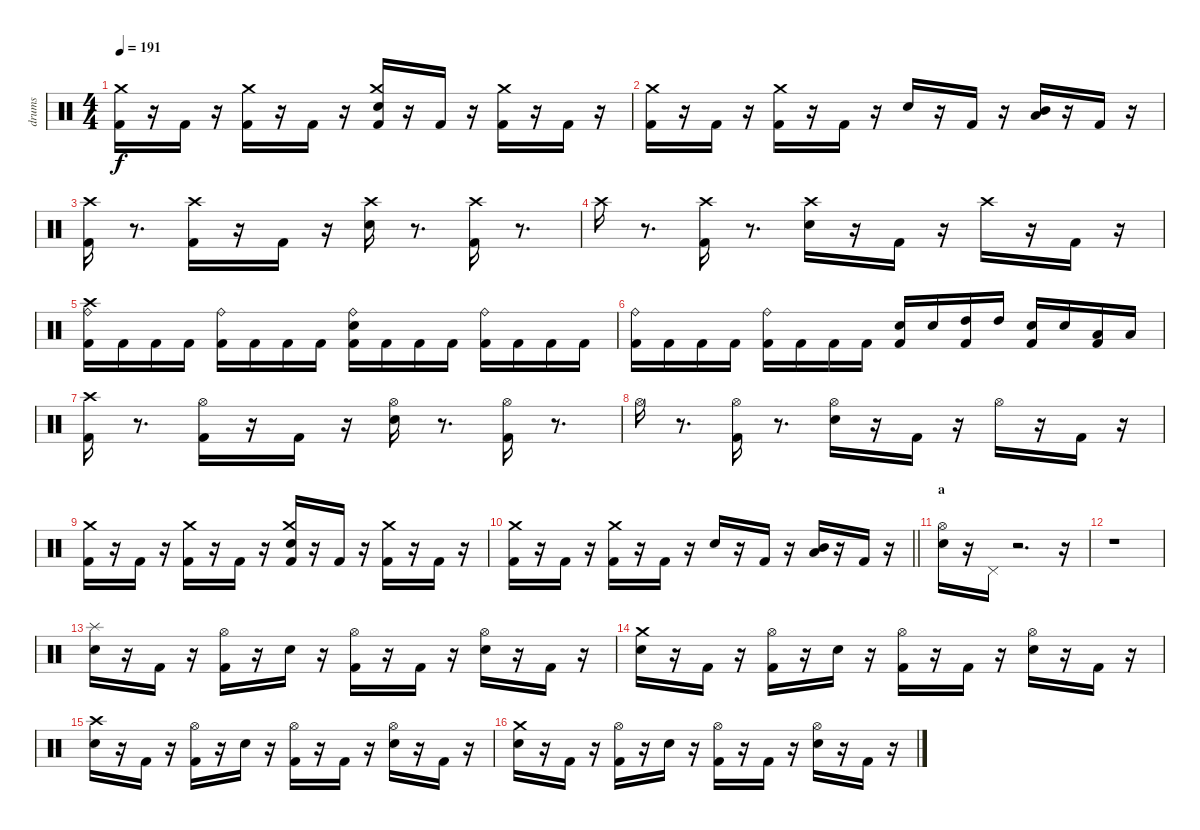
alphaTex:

\track ("drums" "drums") {instrument percussion}
\staff {score}
\articulation defaults
\ts (4 4)
\tempo 191
\clef neutral
\ks c
("Kick (hit) 2" "Crash medium (hit)").16{dy f} r.16 "Kick (hit) 2".16 r.16 ("Kick (hit) 2" "Crash medium (hit)").16 r.16 "Kick (hit) 2".16 r.16 ("Kick (hit) 2" "Snare (hit) 2" "Crash medium (hit)").16 r.16 "Kick (hit) 2".16 r.16 ("Kick (hit) 2" "Crash medium (hit)").16 r.16 "Kick (hit) 2".16 r.16 |
("Kick (hit) 2" "Crash medium (hit)").16 r.16 "Kick (hit) 2".16 r.16 ("Kick (hit) 2" "Crash medium (hit)").16 r.16 "Kick (hit) 2".16 r.16 "Snare (hit) 2".16 r.16 "Kick (hit) 2".16 r.16 ("Low Tom (hit)" "Mid Tom (hit)").16 r.16 "Kick (hit) 2".16 r.16 |
("Kick (hit) 2" "Crash high (hit)").16 r.8{d} ("Kick (hit) 2" "Crash high (hit)").16 r.16 "Kick (hit) 2".16 r.16 ("Snare (hit) 2" "Crash high (hit)").16 r.8{d} ("Kick (hit) 2" "Crash high (hit)").16 r.8{d} |
"Crash high (hit)".16 r.8{d} ("Kick (hit) 2" "Crash high (hit)").16 r.8{d} ("Snare (hit) 2" "Crash high (hit)").16 r.16 "Kick (hit) 2".16 r.16 "Crash high (hit)".16 r.16 "Kick (hit) 2".16 r.16 |
("Kick (hit) 2" "Crash high (hit)" "Ride (bell)").16 "Kick (hit) 2".16 "Kick (hit) 2".16 "Kick (hit) 2".16 ("Kick (hit) 2" "Ride (bell)").16 "Kick (hit) 2".16 "Kick (hit) 2".16 "Kick (hit) 2".16 ("Kick (hit) 2" "Snare (hit) 2" "Ride (bell)").16 "Kick (hit) 2".16 "Kick (hit) 2".16 "Kick (hit) 2".16 ("Kick (hit) 2" "Ride (bell)").16 "Kick (hit) 2".16 "Kick (hit) 2".16 "Kick (hit) 2".16 |
("Kick (hit) 2" "Ride (bell)").16 "Kick (hit) 2".16 "Kick (hit) 2".16 "Kick (hit) 2".16 ("Kick (hit) 2" "Ride (bell)").16 "Kick (hit) 2".16 "Kick (hit) 2".16 "Kick (hit) 2".16 ("Kick (hit) 2" "Snare (hit) 2").16 "Snare (hit) 2".16 ("Kick (hit) 2" "High Tom (hit)").16 "High Tom (hit)".16 ("Kick (hit) 2" "Snare (hit) 2").16 "Snare (hit) 2".16 ("Kick (hit) 2" "Low Tom (hit)").16 "Low Tom (hit)".16 |
("Kick (hit) 2" "Crash high (hit)").16 r.8{d} ("Kick (hit) 2" "Hi-Hat (open)").16 r.16 "Kick (hit) 2".16 r.16 ("Snare (hit) 2" "Hi-Hat (open)").16 r.8{d} ("Kick (hit) 2" "Hi-Hat (open)").16 r.8{d} |
"Hi-Hat (open)".16 r.8{d} ("Kick (hit) 2" "Hi-Hat (open)").16 r.8{d} ("Snare (hit) 2" "Hi-Hat (open)").16 r.16 "Kick (hit) 2".16 r.16 "Hi-Hat (open)".16 r.16 "Kick (hit) 2".16 r.16 |
("Kick (hit) 2" "Crash medium (hit)").16 r.16 "Kick (hit) 2".16 r.16 ("Kick (hit) 2" "Crash medium (hit)").16 r.16 "Kick (hit) 2".16 r.16 ("Kick (hit) 2" "Snare (hit) 2" "Crash medium (hit)").16 r.16 "Kick (hit) 2".16 r.16 ("Kick (hit) 2" "Crash medium (hit)").16 r.16 "Kick (hit) 2".16 r.16 |
\barLineRight lightlight
("Kick (hit) 2" "Crash medium (hit)").16 r.16 "Kick (hit) 2".16 r.16 ("Kick (hit) 2" "Crash medium (hit)").16 r.16 "Kick (hit) 2".16 r.16 "Snare (hit) 2".16 r.16 "Kick (hit) 2".16 r.16 ("Low Tom (hit)" "Mid Tom (hit)").16 r.16 "Kick (hit) 2".16 r.16 |
\section ("" "a")
("Snare (hit) 2" "Hi-Hat (open)").16 r.16 "Pedal Hi-Hat (hit)".16 r.2{d} r.16 |
r.1 |
("Snare (hit) 2" "Splash (hit)").16 r.16 "Kick (hit) 2".16 r.16 ("Kick (hit) 2" "Hi-Hat (open)").16 r.16 "Snare (hit) 2".16 r.16 ("Kick (hit) 2" "Hi-Hat (open)").16 r.16 "Kick (hit) 2".16 r.16 ("Snare (hit) 2" "Hi-Hat (open)").16 r.16 "Kick (hit) 2".16 r.16 |
("Snare (hit) 2" "Crash medium (hit)").16 r.16 "Kick (hit) 2".16 r.16 ("Kick (hit) 2" "Hi-Hat (open)").16 r.16 "Snare (hit) 2".16 r.16 ("Kick (hit) 2" "Hi-Hat (open)").16 r.16 "Kick (hit) 2".16 r.16 ("Snare (hit) 2" "Hi-Hat (open)").16 r.16 "Kick (hit) 2".16 r.16 |
("Snare (hit) 2" "Crash high (hit)").16 r.16 "Kick (hit) 2".16 r.16 ("Kick (hit) 2" "Hi-Hat (open)").16 r.16 "Snare (hit) 2".16 r.16 ("Kick (hit) 2" "Hi-Hat (open)").16 r.16 "Kick (hit) 2".16 r.16 ("Snare (hit) 2" "Hi-Hat (open)").16 r.16 "Kick (hit) 2".16 r.16 |
("Snare (hit) 2" "Crash medium (hit)").16 r.16 "Kick (hit) 2".16 r.16 ("Kick (hit) 2" "Hi-Hat (open)").16 r.16 "Snare (hit) 2".16 r.16 ("Kick (hit) 2" "Hi-Hat (open)").16 r.16 "Kick (hit) 2".16 r.16 ("Snare (hit) 2" "Hi-Hat (open)").16 r.16 "Kick (hit) 2".16 r.16
